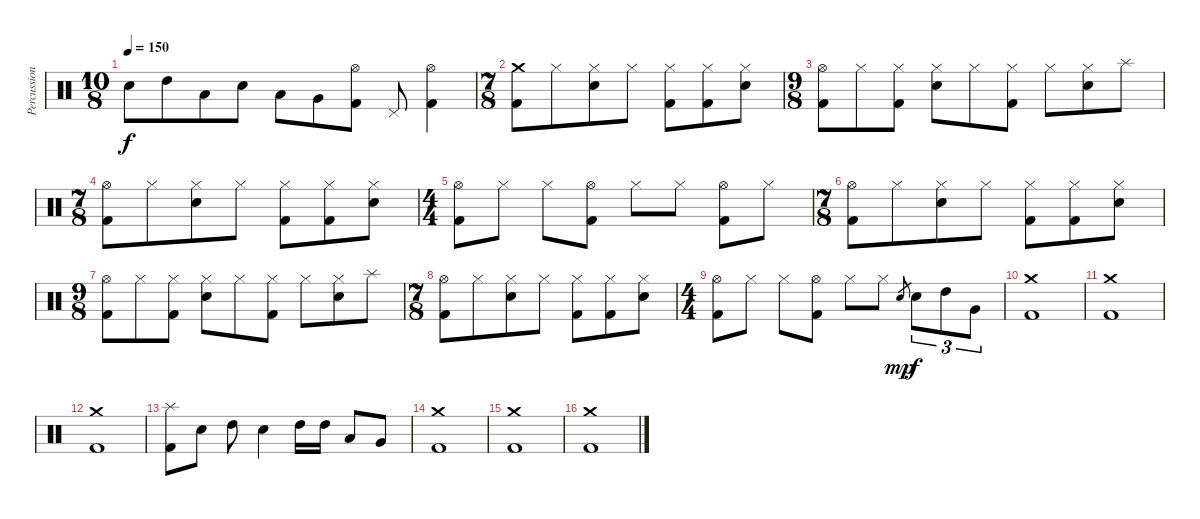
\track ("Percussions" "Percussion") {instrument percussion}
\staff {score}
\articulation defaults
\ts (10 8)
\tempo 150
\clef neutral
\ks c "Snare (hit) 2".8{dy f} "High Tom (hit)".8 "Low Tom (hit)".8 "Snare (hit) 2".8 "Low Tom (hit)".8 "Very Low Tom (hit)".8
("Hi-Hat (open)" "Kick (hit) 2").8 "Pedal Hi-Hat (hit)".8 ("Hi-Hat (open)" "Kick (hit) 2").4 |
\ts (7 8)
("Crash medium (hit)" "Kick (hit) 2").8 "Hi-Hat (closed)".8 ("Hi-Hat (closed)" "Snare (hit) 2").8 "Hi-Hat (closed)".8 ("Hi-Hat (closed)" "Kick (hit) 2").8 ("Hi-Hat (closed)" "Kick (hit) 2").8 ("Hi-Hat (closed)" "Snare (hit) 2").8 |
\ts (9 8)
("Hi-Hat (open)" "Kick (hit) 2").8 "Hi-Hat (closed)".8 ("Hi-Hat (closed)" "Kick (hit) 2").8 ("Hi-Hat (closed)" "Snare (hit) 2").8 "Hi-Hat (closed)".8 ("Hi-Hat (closed)" "Kick (hit) 2").8 "Hi-Hat (closed)".8 ("Hi-Hat (closed)" "Snare (hit) 2").8 "Splash (hit)".8 |
\ts (7 8)
("Hi-Hat (open)" "Kick (hit) 2").8 "Hi-Hat (closed)".8 ("Hi-Hat (closed)" "Snare (hit) 2").8 "Hi-Hat (closed)".8 ("Hi-Hat (closed)" "Kick (hit) 2").8 ("Hi-Hat (closed)" "Kick (hit) 2").8 ("Hi-Hat (closed)" "Snare (hit) 2").8 |
\ts (4 4)
("Hi-Hat (open)" "Kick (hit) 2").8 "Hi-Hat (closed)".8 "Hi-Hat (closed)".8 ("Hi-Hat (open)" "Kick (hit) 2").8 "Hi-Hat (closed)".8 "Hi-Hat (closed)".8 ("Hi-Hat (open)" "Kick (hit) 2").8 "Hi-Hat (closed)".8 |
\ts (7 8)
("Hi-Hat (open)" "Kick (hit) 2").8 "Hi-Hat (closed)".8 ("Hi-Hat (closed)" "Snare (hit) 2").8 "Hi-Hat (closed)".8 ("Hi-Hat (closed)" "Kick (hit) 2").8 ("Hi-Hat (closed)" "Kick (hit) 2").8 ("Hi-Hat (closed)" "Snare (hit) 2").8 |
\ts (9 8)
("Hi-Hat (open)" "Kick (hit) 2").8 "Hi-Hat (closed)".8 ("Hi-Hat (closed)" "Kick (hit) 2").8 ("Hi-Hat (closed)" "Snare (hit) 2").8 "Hi-Hat (closed)".8 ("Hi-Hat (closed)" "Kick (hit) 2").8 "Hi-Hat (closed)".8 ("Hi-Hat (closed)" "Snare (hit) 2").8 "Splash (hit)".8 |
\ts (7 8)
("Hi-Hat (open)" "Kick (hit) 2").8 "Hi-Hat (closed)".8 ("Hi-Hat (closed)" "Snare (hit) 2").8 "Hi-Hat (closed)".8 ("Hi-Hat (closed)" "Kick (hit) 2").8 ("Hi-Hat (closed)" "Kick (hit) 2").8 ("Hi-Hat (closed)" "Snare (hit) 2").8 |
\ts (4 4)
("Hi-Hat (open)" "Kick (hit) 2").8 "Hi-Hat (closed)".8 "Hi-Hat (closed)".8 ("Hi-Hat (open)" "Kick (hit) 2").8 "Hi-Hat (closed)".8 "Hi-Hat (closed)".8 "Snare (hit) 2".8{gr dy mp} "Snare (hit) 2".8{tu (3 2) dy f} "High Tom (hit)".8{tu (3 2)} "Very Low Tom (hit)".8{tu (3 2)} |
("Crash medium (hit)" "Kick (hit) 2").1 |
("Crash medium (hit)" "Kick (hit) 2").1 |
("Crash medium (hit)" "Kick (hit) 2").1 |
("Splash (hit)" "Kick (hit) 2").8 "Snare (hit) 2".8 "High Tom (hit)".8 "Snare (hit) 2".4 "High Tom (hit)".16 "High Tom (hit)".16 "Low Tom (hit)".8 "Very Low Tom (hit)".8 |
("Crash medium (hit)" "Kick (hit) 2").1 |
("Crash medium (hit)" "Kick (hit) 2").1 |
("Crash medium (hit)" "Kick (hit) 2").1
